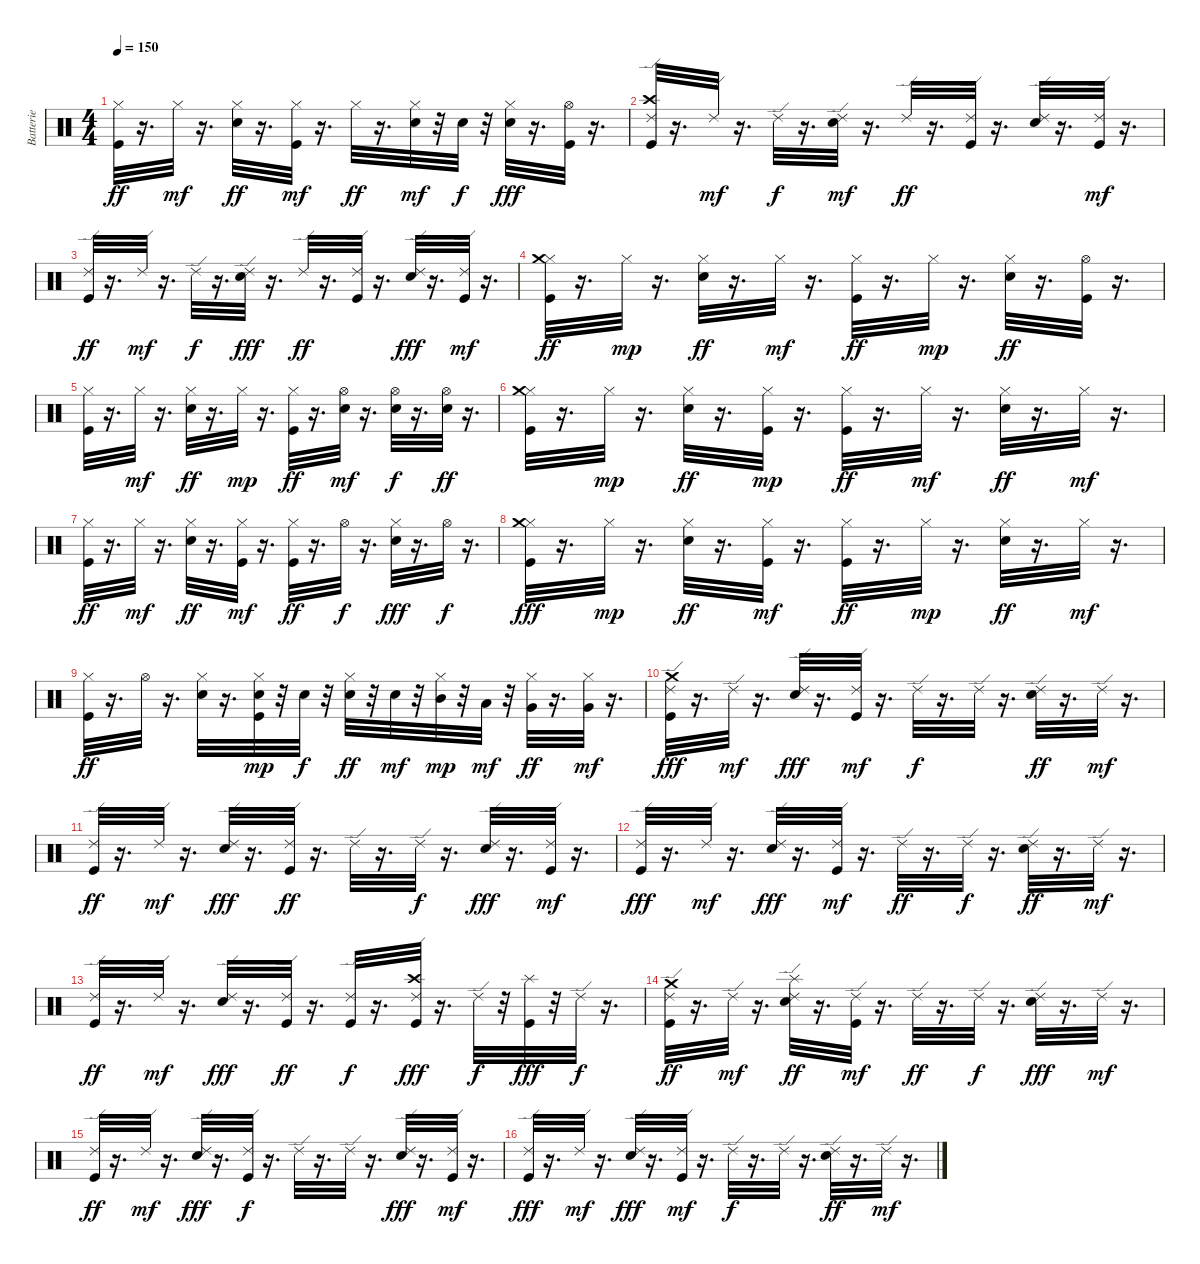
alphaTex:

\track ("Batterie" "Batterie") {instrument percussion}
\staff {score}
\articulation defaults
\ts (4 4)
\tempo 150
\clef neutral
\ks c
("Kick (hit)" "Hi-Hat (closed)").32{dy ff} r.16{d} "Hi-Hat (closed)".32{dy mf} r.16{d} ("Snare (hit) 2" "Hi-Hat (closed)").32{dy ff} r.16{d} ("Kick (hit)" "Hi-Hat (closed)").32{dy mf} r.16{d} "Hi-Hat (closed)".32{dy ff} r.16{d} ("Snare (hit) 2" "Hi-Hat (closed)").32{dy mf} r.32 "Snare (hit) 2".32{dy f} r.32 ("Snare (hit) 2" "Hi-Hat (closed)").32{dy fff} r.16{d} ("Kick (hit)" "Hi-Hat (open)").32 r.16{d} |
("Kick (hit)" "Crash high (hit)" "Ride (edge) 2").32 r.16{d} "Ride (edge) 2".32{dy mf} r.16{d} "Ride (edge) 2".32{dy f} r.16{d} ("Snare (hit) 2" "Ride (edge) 2").32{dy mf} r.16{d} "Ride (edge) 2".32{dy ff} r.16{d} ("Kick (hit)" "Ride (edge) 2").32 r.16{d} ("Snare (hit) 2" "Ride (edge) 2").32 r.16{d} ("Kick (hit)" "Ride (edge) 2").32{dy mf} r.16{d} |
("Kick (hit)" "Ride (edge) 2").32{dy ff} r.16{d} "Ride (edge) 2".32{dy mf} r.16{d} "Ride (edge) 2".32{dy f} r.16{d} ("Snare (hit) 2" "Ride (edge) 2").32{dy fff} r.16{d} "Ride (edge) 2".32{dy ff} r.16{d} ("Kick (hit)" "Ride (edge) 2").32 r.16{d} ("Snare (hit) 2" "Ride (edge) 2").32{dy fff} r.16{d} ("Kick (hit)" "Ride (edge) 2").32{dy mf} r.16{d} |
("Kick (hit)" "Hi-Hat (closed)" "Crash medium (hit)").32{dy ff} r.16{d} "Hi-Hat (closed)".32{dy mp} r.16{d} ("Snare (hit) 2" "Hi-Hat (closed)").32{dy ff} r.16{d} "Hi-Hat (closed)".32{dy mf} r.16{d} ("Kick (hit)" "Hi-Hat (closed)").32{dy ff} r.16{d} "Hi-Hat (closed)".32{dy mp} r.16{d} ("Snare (hit) 2" "Hi-Hat (closed)").32{dy ff} r.16{d} ("Kick (hit)" "Hi-Hat (open)").32 r.16{d} |
("Kick (hit)" "Hi-Hat (closed)").32 r.16{d} "Hi-Hat (closed)".32{dy mf} r.16{d} ("Snare (hit) 2" "Hi-Hat (closed)").32{dy ff} r.16{d} "Hi-Hat (closed)".32{dy mp} r.16{d} ("Kick (hit)" "Hi-Hat (closed)").32{dy ff} r.16{d} ("Snare (hit) 2" "Hi-Hat (open)").32{dy mf} r.16{d} ("Snare (hit) 2" "Hi-Hat (open)").32{dy f} r.16{d} ("Snare (hit) 2" "Hi-Hat (open)").32{dy ff} r.16{d} |
("Kick (hit)" "Hi-Hat (closed)" "Crash medium (hit)").32 r.16{d} "Hi-Hat (closed)".32{dy mp} r.16{d} ("Snare (hit) 2" "Hi-Hat (closed)").32{dy ff} r.16{d} ("Kick (hit)" "Hi-Hat (closed)").32{dy mp} r.16{d} ("Kick (hit)" "Hi-Hat (closed)").32{dy ff} r.16{d} "Hi-Hat (closed)".32{dy mf} r.16{d} ("Snare (hit) 2" "Hi-Hat (closed)").32{dy ff} r.16{d} "Hi-Hat (closed)".32{dy mf} r.16{d} |
("Kick (hit)" "Hi-Hat (closed)").32{dy ff} r.16{d} "Hi-Hat (closed)".32{dy mf} r.16{d} ("Snare (hit) 2" "Hi-Hat (closed)").32{dy ff} r.16{d} ("Kick (hit)" "Hi-Hat (closed)").32{dy mf} r.16{d} ("Kick (hit)" "Hi-Hat (closed)").32{dy ff} r.16{d} "Hi-Hat (open)".32{dy f} r.16{d} ("Snare (hit) 2" "Hi-Hat (closed)").32{dy fff} r.16{d} "Hi-Hat (open)".32{dy f} r.16{d} |
("Kick (hit)" "Hi-Hat (closed)" "Crash medium (hit)").32{dy fff} r.16{d} "Hi-Hat (closed)".32{dy mp} r.16{d} ("Snare (hit) 2" "Hi-Hat (closed)").32{dy ff} r.16{d} ("Kick (hit)" "Hi-Hat (closed)").32{dy mf} r.16{d} ("Kick (hit)" "Hi-Hat (closed)").32{dy ff} r.16{d} "Hi-Hat (closed)".32{dy mp} r.16{d} ("Snare (hit) 2" "Hi-Hat (closed)").32{dy ff} r.16{d} "Hi-Hat (closed)".32{dy mf} r.16{d} |
("Kick (hit)" "Hi-Hat (closed)").32{dy ff} r.16{d} "Hi-Hat (open)".32 r.16{d} ("Snare (hit) 2" "Hi-Hat (closed)").32 r.16{d} ("Kick (hit)" "Snare (hit) 2" "Hi-Hat (closed)").32{dy mp} r.32 "Snare (hit) 2".32{dy f} r.32 ("Snare (hit) 2" "Hi-Hat (closed)").32{dy ff} r.32 "Snare (hit) 2".32{dy mf} r.32 ("Hi-Hat (closed)" "Mid Tom (hit)").32{dy mp} r.32 "Low Tom (hit)".32{dy mf} r.32 ("Hi-Hat (closed)" "Very Low Tom (hit)").32{dy ff} r.16{d} ("Hi-Hat (closed)" "Very Low Tom (hit)").32{dy mf} r.16{d} |
("Kick (hit)" "Crash medium (hit)" "Ride (edge) 2").32{dy fff} r.16{d} "Ride (edge) 2".32{dy mf} r.16{d} ("Snare (hit) 2" "Ride (edge) 2").32{dy fff} r.16{d} ("Kick (hit)" "Ride (edge) 2").32{dy mf} r.16{d} "Ride (edge) 2".32{dy f} r.16{d} "Ride (edge) 2".32 r.16{d} ("Snare (hit) 2" "Ride (edge) 2").32{dy ff} r.16{d} "Ride (edge) 2".32{dy mf} r.16{d} |
("Kick (hit)" "Ride (edge) 2").32{dy ff} r.16{d} "Ride (edge) 2".32{dy mf} r.16{d} ("Snare (hit) 2" "Ride (edge) 2").32{dy fff} r.16{d} ("Kick (hit)" "Ride (edge) 2").32{dy ff} r.16{d} "Ride (edge) 2".32 r.16{d} "Ride (edge) 2".32{dy f} r.16{d} ("Snare (hit) 2" "Ride (edge) 2").32{dy fff} r.16{d} ("Kick (hit)" "Ride (edge) 2").32{dy mf} r.16{d} |
("Kick (hit)" "Ride (edge) 2").32{dy fff} r.16{d} "Ride (edge) 2".32{dy mf} r.16{d} ("Snare (hit) 2" "Ride (edge) 2").32{dy fff} r.16{d} ("Kick (hit)" "Ride (edge) 2").32{dy mf} r.16{d} "Ride (edge) 2".32{dy ff} r.16{d} "Ride (edge) 2".32{dy f} r.16{d} ("Snare (hit) 2" "Ride (edge) 2").32{dy ff} r.16{d} "Ride (edge) 2".32{dy mf} r.16{d} |
("Kick (hit)" "Ride (edge) 2").32{dy ff} r.16{d} "Ride (edge) 2".32{dy mf} r.16{d} ("Snare (hit) 2" "Ride (edge) 2").32{dy fff} r.16{d} ("Kick (hit)" "Ride (edge) 2").32{dy ff} r.16{d} ("Kick (hit)" "Ride (edge) 2").32{dy f} r.16{d} ("Kick (hit)" "Crash high (hit)" "Ride (edge) 2").32{dy fff} r.16{d} "Ride (edge) 2".32{dy f} r.32 ("Kick (hit)" "Splash (hit)").32{dy fff} r.32 "Ride (edge) 2".32{dy f} r.16{d} |
("Kick (hit)" "Crash medium (hit)" "Ride (edge) 2").32{dy ff} r.16{d} "Ride (edge) 2".32{dy mf} r.16{d} ("Snare (hit) 2" "Splash (hit)" "Ride (edge) 2").32{dy ff} r.16{d} ("Kick (hit)" "Ride (edge) 2").32{dy mf} r.16{d} "Ride (edge) 2".32{dy ff} r.16{d} "Ride (edge) 2".32{dy f} r.16{d} ("Snare (hit) 2" "Ride (edge) 2").32{dy fff} r.16{d} "Ride (edge) 2".32{dy mf} r.16{d} |
("Kick (hit)" "Ride (edge) 2").32{dy ff} r.16{d} "Ride (edge) 2".32{dy mf} r.16{d} ("Snare (hit) 2" "Ride (edge) 2").32{dy fff} r.16{d} ("Kick (hit)" "Ride (edge) 2").32{dy f} r.16{d} "Ride (edge) 2".32 r.16{d} "Ride (edge) 2".32 r.16{d} ("Snare (hit) 2" "Ride (edge) 2").32{dy fff} r.16{d} ("Kick (hit)" "Ride (edge) 2").32{dy mf} r.16{d} |
("Kick (hit)" "Ride (edge) 2").32{dy fff} r.16{d} "Ride (edge) 2".32{dy mf} r.16{d} ("Snare (hit) 2" "Ride (edge) 2").32{dy fff} r.16{d} ("Kick (hit)" "Ride (edge) 2").32{dy mf} r.16{d} "Ride (edge) 2".32{dy f} r.16{d} "Ride (edge) 2".32 r.16{d} ("Snare (hit) 2" "Ride (edge) 2").32{dy ff} r.16{d} "Ride (edge) 2".32{dy mf} r.16{d}
